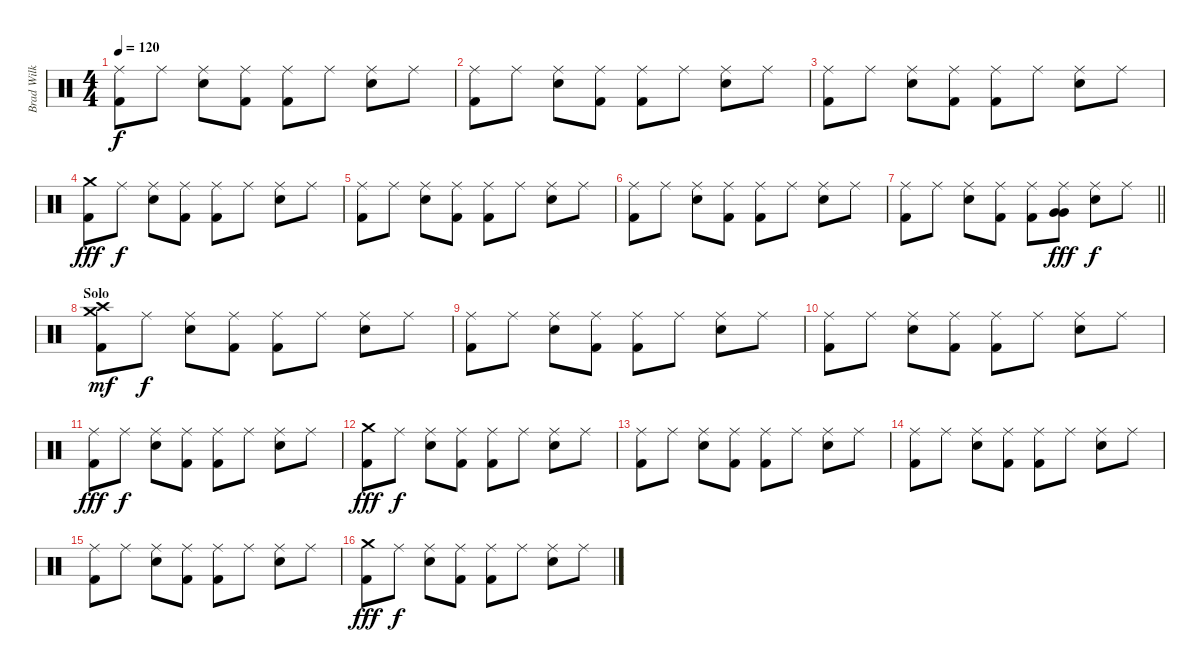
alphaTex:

\track ("Brad Wilk" "Brad Wilk") {instrument percussion}
\staff {score}
\articulation defaults
\ts (4 4)
\tempo 120
\clef neutral
\ks c
("Ride (middle)" "Kick (hit) 2").8{dy f} "Ride (middle)".8 ("Ride (middle)" "Electric Snare (hit)").8 ("Ride (middle)" "Kick (hit) 2").8 ("Ride (middle)" "Kick (hit) 2").8 "Ride (middle)".8 ("Ride (middle)" "Electric Snare (hit)").8 "Ride (middle)".8 |
("Ride (middle)" "Kick (hit) 2").8 "Ride (middle)".8 ("Ride (middle)" "Electric Snare (hit)").8 ("Ride (middle)" "Kick (hit) 2").8 ("Ride (middle)" "Kick (hit) 2").8 "Ride (middle)".8 ("Ride (middle)" "Electric Snare (hit)").8 "Ride (middle)".8 |
("Ride (middle)" "Kick (hit) 2").8 "Ride (middle)".8 ("Ride (middle)" "Electric Snare (hit)").8 ("Ride (middle)" "Kick (hit) 2").8 ("Ride (middle)" "Kick (hit) 2").8 "Ride (middle)".8 ("Ride (middle)" "Electric Snare (hit)").8 "Ride (middle)".8 |
("Crash medium (hit)" "Kick (hit) 2").8{dy fff} "Ride (middle)".8{dy f} ("Ride (middle)" "Electric Snare (hit)").8 ("Ride (middle)" "Kick (hit) 2").8 ("Ride (middle)" "Kick (hit) 2").8 "Ride (middle)".8 ("Ride (middle)" "Electric Snare (hit)").8 "Ride (middle)".8 |
("Ride (middle)" "Kick (hit) 2").8 "Ride (middle)".8 ("Ride (middle)" "Electric Snare (hit)").8 ("Ride (middle)" "Kick (hit) 2").8 ("Ride (middle)" "Kick (hit) 2").8 "Ride (middle)".8 ("Ride (middle)" "Electric Snare (hit)").8 "Ride (middle)".8 |
("Ride (middle)" "Kick (hit) 2").8 "Ride (middle)".8 ("Ride (middle)" "Electric Snare (hit)").8 ("Ride (middle)" "Kick (hit) 2").8 ("Ride (middle)" "Kick (hit) 2").8 "Ride (middle)".8 ("Ride (middle)" "Electric Snare (hit)").8 "Ride (middle)".8 |
\barLineRight lightlight
("Ride (middle)" "Kick (hit) 2").8 "Ride (middle)".8 ("Ride (middle)" "Electric Snare (hit)").8 ("Ride (middle)" "Kick (hit) 2").8 ("Ride (middle)" "Kick (hit) 2").8 ("Ride (middle)" "Very Low Tom (hit)" "Very Low Tom (hit)").8{dy fff} ("Ride (middle)" "Electric Snare (hit)").8{dy f} "Ride (middle)".8 |
\section ("" "Solo")
("Crash medium (hit)" "Crash high (hit)" "Kick (hit) 2").8{dy mf} "Ride (middle)".8{dy f} ("Ride (middle)" "Electric Snare (hit)").8 ("Ride (middle)" "Kick (hit) 2").8 ("Ride (middle)" "Kick (hit) 2").8 "Ride (middle)".8 ("Ride (middle)" "Electric Snare (hit)").8 "Ride (middle)".8 |
("Ride (middle)" "Kick (hit) 2").8 "Ride (middle)".8 ("Ride (middle)" "Electric Snare (hit)").8 ("Ride (middle)" "Kick (hit) 2").8 ("Ride (middle)" "Kick (hit) 2").8 "Ride (middle)".8 ("Ride (middle)" "Electric Snare (hit)").8 "Ride (middle)".8 |
("Ride (middle)" "Kick (hit) 2").8 "Ride (middle)".8 ("Ride (middle)" "Electric Snare (hit)").8 ("Ride (middle)" "Kick (hit) 2").8 ("Ride (middle)" "Kick (hit) 2").8 "Ride (middle)".8 ("Ride (middle)" "Electric Snare (hit)").8 "Ride (middle)".8 |
("Ride (middle)" "Kick (hit) 2").8{dy fff} "Ride (middle)".8{dy f} ("Ride (middle)" "Electric Snare (hit)").8 ("Ride (middle)" "Kick (hit) 2").8 ("Ride (middle)" "Kick (hit) 2").8 "Ride (middle)".8 ("Ride (middle)" "Electric Snare (hit)").8 "Ride (middle)".8 |
("Crash medium (hit)" "Kick (hit) 2").8{dy fff} "Ride (middle)".8{dy f} ("Ride (middle)" "Electric Snare (hit)").8 ("Ride (middle)" "Kick (hit) 2").8 ("Ride (middle)" "Kick (hit) 2").8 "Ride (middle)".8 ("Ride (middle)" "Electric Snare (hit)").8 "Ride (middle)".8 |
("Ride (middle)" "Kick (hit) 2").8 "Ride (middle)".8 ("Ride (middle)" "Electric Snare (hit)").8 ("Ride (middle)" "Kick (hit) 2").8 ("Ride (middle)" "Kick (hit) 2").8 "Ride (middle)".8 ("Ride (middle)" "Electric Snare (hit)").8 "Ride (middle)".8 |
("Ride (middle)" "Kick (hit) 2").8 "Ride (middle)".8 ("Ride (middle)" "Electric Snare (hit)").8 ("Ride (middle)" "Kick (hit) 2").8 ("Ride (middle)" "Kick (hit) 2").8 "Ride (middle)".8 ("Ride (middle)" "Electric Snare (hit)").8 "Ride (middle)".8 |
("Ride (middle)" "Kick (hit) 2").8 "Ride (middle)".8 ("Ride (middle)" "Electric Snare (hit)").8 ("Ride (middle)" "Kick (hit) 2").8 ("Ride (middle)" "Kick (hit) 2").8 "Ride (middle)".8 ("Ride (middle)" "Electric Snare (hit)").8 "Ride (middle)".8 |
("Crash medium (hit)" "Kick (hit) 2").8{dy fff} "Ride (middle)".8{dy f} ("Ride (middle)" "Electric Snare (hit)").8 ("Ride (middle)" "Kick (hit) 2").8 ("Ride (middle)" "Kick (hit) 2").8 "Ride (middle)".8 ("Ride (middle)" "Electric Snare (hit)").8 "Ride (middle)".8
